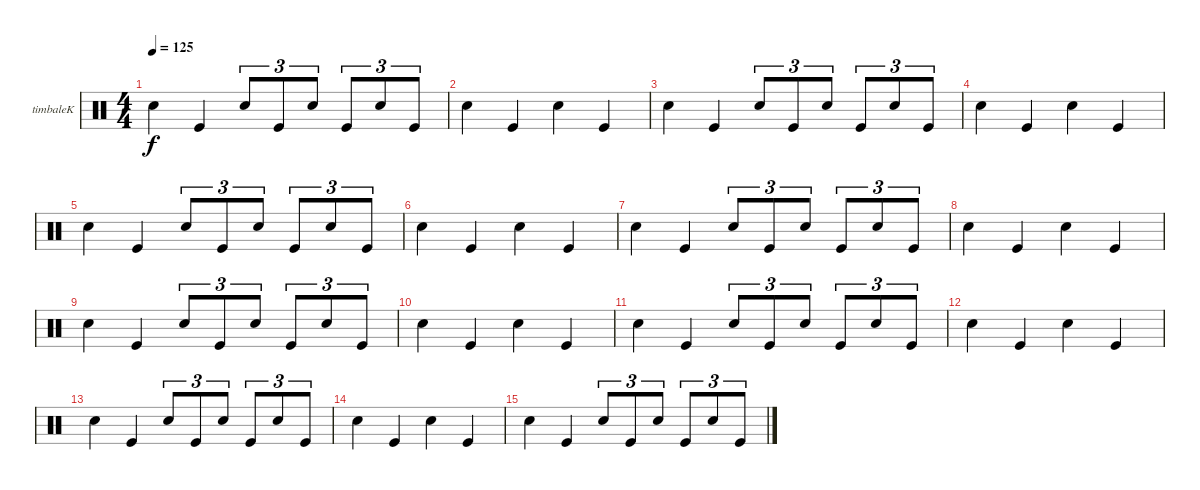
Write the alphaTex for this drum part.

\defaultSystemsLayout 4
\bracketExtendMode groupsimilarinstruments
\firstSystemTrackNameOrientation horizontal
\otherSystemsTrackNameOrientation horizontal
\track ("Timbale" "timbaleK") {instrument percussion}
\staff {score}
\articulation defaults
\ts (4 4)
\tempo 125
\clef neutral
\scale
0.333333
\ks c "Snare (hit) 2".4{dy f} "Kick (hit)".4 "Snare (hit) 2".8{tu (3 2)} "Kick (hit)".8{tu (3 2)} "Snare (hit) 2".8{tu (3 2)} "Kick (hit)".8{tu (3 2)} "Snare (hit) 2".8{tu (3 2)} "Kick (hit)".8{tu (3 2)}
|
\scale
0.333333 "Snare (hit) 2".4 "Kick (hit)".4 "Snare (hit) 2".4 "Kick (hit)".4 |
\scale
0.333333 "Snare (hit) 2".4 "Kick (hit)".4 "Snare (hit) 2".8{tu (3 2)} "Kick (hit)".8{tu (3 2)} "Snare (hit) 2".8{tu (3 2)} "Kick (hit)".8{tu (3 2)} "Snare (hit) 2".8{tu (3 2)} "Kick (hit)".8{tu (3 2)} |
\scale
0.333333 "Snare (hit) 2".4 "Kick (hit)".4 "Snare (hit) 2".4 "Kick (hit)".4 |
\scale
0.333333 "Snare (hit) 2".4 "Kick (hit)".4 "Snare (hit) 2".8{tu (3 2)} "Kick (hit)".8{tu (3 2)} "Snare (hit) 2".8{tu (3 2)} "Kick (hit)".8{tu (3 2)} "Snare (hit) 2".8{tu (3 2)} "Kick (hit)".8{tu (3 2)} |
\scale
0.333333 "Snare (hit) 2".4 "Kick (hit)".4 "Snare (hit) 2".4 "Kick (hit)".4 |
\scale
0.333333 "Snare (hit) 2".4 "Kick (hit)".4 "Snare (hit) 2".8{tu (3 2)} "Kick (hit)".8{tu (3 2)} "Snare (hit) 2".8{tu (3 2)} "Kick (hit)".8{tu (3 2)} "Snare (hit) 2".8{tu (3 2)} "Kick (hit)".8{tu (3 2)} |
\scale
0.333333 "Snare (hit) 2".4 "Kick (hit)".4 "Snare (hit) 2".4 "Kick (hit)".4 |
\scale
0.333333 "Snare (hit) 2".4 "Kick (hit)".4 "Snare (hit) 2".8{tu (3 2)} "Kick (hit)".8{tu (3 2)} "Snare (hit) 2".8{tu (3 2)} "Kick (hit)".8{tu (3 2)} "Snare (hit) 2".8{tu (3 2)} "Kick (hit)".8{tu (3 2)} |
\scale
0.333333 "Snare (hit) 2".4 "Kick (hit)".4 "Snare (hit) 2".4 "Kick (hit)".4 |
\scale
0.333333 "Snare (hit) 2".4 "Kick (hit)".4 "Snare (hit) 2".8{tu (3 2)} "Kick (hit)".8{tu (3 2)} "Snare (hit) 2".8{tu (3 2)} "Kick (hit)".8{tu (3 2)} "Snare (hit) 2".8{tu (3 2)} "Kick (hit)".8{tu (3 2)} |
\scale
0.333333 "Snare (hit) 2".4 "Kick (hit)".4 "Snare (hit) 2".4 "Kick (hit)".4 |
\scale
0.333333 "Snare (hit) 2".4 "Kick (hit)".4 "Snare (hit) 2".8{tu (3 2)} "Kick (hit)".8{tu (3 2)} "Snare (hit) 2".8{tu (3 2)} "Kick (hit)".8{tu (3 2)} "Snare (hit) 2".8{tu (3 2)} "Kick (hit)".8{tu (3 2)} |
\scale
0.333333 "Snare (hit) 2".4 "Kick (hit)".4 "Snare (hit) 2".4 "Kick (hit)".4 |
\scale
0.333333 "Snare (hit) 2".4 "Kick (hit)".4 "Snare (hit) 2".8{tu (3 2)} "Kick (hit)".8{tu (3 2)} "Snare (hit) 2".8{tu (3 2)} "Kick (hit)".8{tu (3 2)} "Snare (hit) 2".8{tu (3 2)} "Kick (hit)".8{tu (3 2)} |
\scale
0.333333
